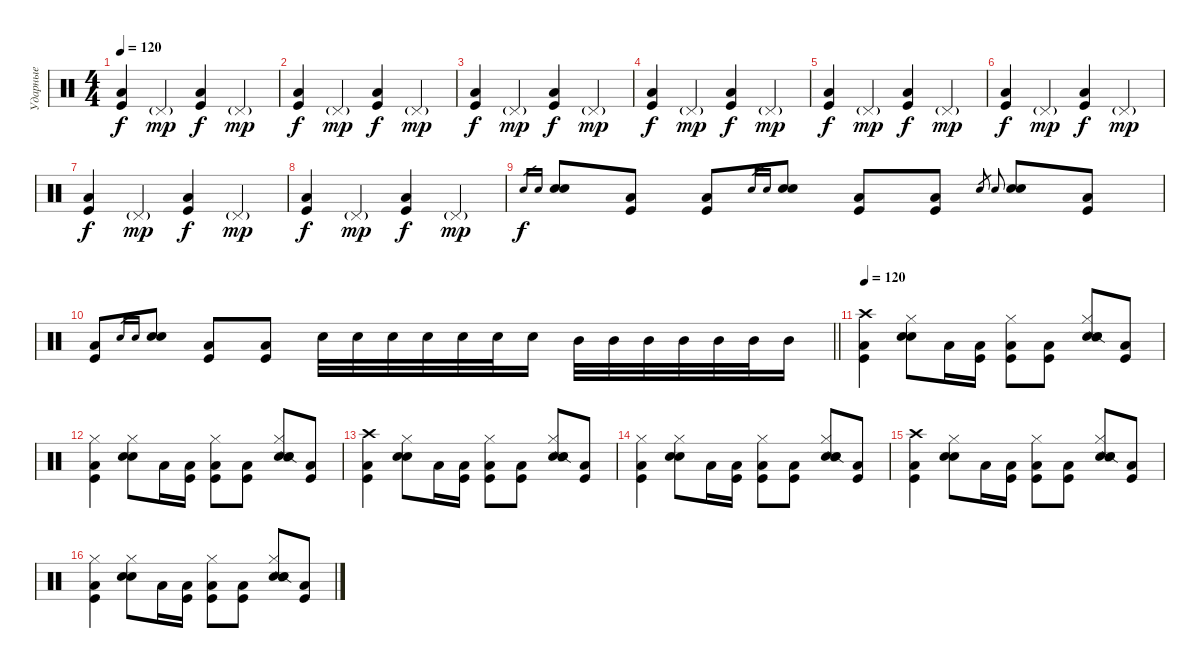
\track ("Ударные" "Ударные") {instrument percussion}
\staff {score}
\articulation defaults
\ts (4 4)
\tempo 120
\clef neutral
\ks c
("Low Tom (hit)" "Kick (hit)").4{dy f} "Pedal Hi-Hat (hit)"{g}.4{dy mp} ("Low Tom (hit)" "Kick (hit)").4{dy f} "Pedal Hi-Hat (hit)"{g}.4{dy mp} |
("Low Tom (hit)" "Kick (hit)").4{dy f} "Pedal Hi-Hat (hit)"{g}.4{dy mp} ("Low Tom (hit)" "Kick (hit)").4{dy f} "Pedal Hi-Hat (hit)"{g}.4{dy mp} |
("Low Tom (hit)" "Kick (hit)").4{dy f} "Pedal Hi-Hat (hit)"{g}.4{dy mp} ("Low Tom (hit)" "Kick (hit)").4{dy f} "Pedal Hi-Hat (hit)"{g}.4{dy mp} |
("Low Tom (hit)" "Kick (hit)").4{dy f} "Pedal Hi-Hat (hit)"{g}.4{dy mp} ("Low Tom (hit)" "Kick (hit)").4{dy f} "Pedal Hi-Hat (hit)"{g}.4{dy mp} |
("Low Tom (hit)" "Kick (hit)").4{dy f} "Pedal Hi-Hat (hit)"{g}.4{dy mp} ("Low Tom (hit)" "Kick (hit)").4{dy f} "Pedal Hi-Hat (hit)"{g}.4{dy mp} |
("Low Tom (hit)" "Kick (hit)").4{dy f} "Pedal Hi-Hat (hit)"{g}.4{dy mp} ("Low Tom (hit)" "Kick (hit)").4{dy f} "Pedal Hi-Hat (hit)"{g}.4{dy mp} |
("Low Tom (hit)" "Kick (hit)").4{dy f} "Pedal Hi-Hat (hit)"{g}.4{dy mp} ("Low Tom (hit)" "Kick (hit)").4{dy f} "Pedal Hi-Hat (hit)"{g}.4{dy mp} |
("Low Tom (hit)" "Kick (hit)").4{dy f} "Pedal Hi-Hat (hit)"{g}.4{dy mp} ("Low Tom (hit)" "Kick (hit)").4{dy f} "Pedal Hi-Hat (hit)"{g}.4{dy mp} |
"Electric Snare (hit)".16{gr dy f} "Snare (hit) 2".16{gr} ("Electric Snare (hit)" "Snare (hit) 2").8 ("Low Tom (hit)" "Kick (hit)").8 ("Low Tom (hit)" "Kick (hit)").8 "Electric Snare (hit)".16{gr} "Snare (hit) 2".16{gr} ("Electric Snare (hit)" "Snare (hit) 2").8 ("Low Tom (hit)" "Kick (hit)").8 ("Low Tom (hit)" "Kick (hit)").8 "Electric Snare (hit)".16{gr} "Snare (hit) 2".16{gr onbeat} ("Electric Snare (hit)" "Snare (hit) 2").8 ("Low Tom (hit)" "Kick (hit)").8 |
\barLineRight lightlight
("Low Tom (hit)" "Kick (hit)").8 "Electric Snare (hit)".16{gr} "Snare (hit) 2".16{gr} ("Electric Snare (hit)" "Snare (hit) 2").8 ("Low Tom (hit)" "Kick (hit)").8 ("Low Tom (hit)" "Kick (hit)").8 "Electric Snare (hit)".32 "Electric Snare (hit)".32 "Electric Snare (hit)".32 "Electric Snare (hit)".32 "Electric Snare (hit)".32 "Electric Snare (hit)".32 "Electric Snare (hit)".16 "Mid Tom (hit)".32 "Mid Tom (hit)".32 "Mid Tom (hit)".32 "Mid Tom (hit)".32 "Mid Tom (hit)".32 "Mid Tom (hit)".32 "Mid Tom (hit)".16 |
\tempo 120
("Crash high (hit)" "Low Tom (hit)" "Kick (hit)").4 ("Hi-Hat (closed)" "Electric Snare (hit)" "Snare (hit) 2").8 "Low Floor Tom (hit)".16 ("Low Tom (hit)" "Kick (hit)").16 ("Hi-Hat (closed)" "Low Tom (hit)" "Kick (hit)").8 ("Low Tom (hit)" "Kick (hit)").8 ("Hi-Hat (closed)" "Electric Snare (hit)" "Snare (hit) 2" "Snare (side stick) 2").8 ("Low Tom (hit)" "Kick (hit)").8 |
("Hi-Hat (closed)" "Low Tom (hit)" "Kick (hit)").4 ("Hi-Hat (closed)" "Electric Snare (hit)" "Snare (hit) 2").8 "Low Floor Tom (hit)".16 ("Low Tom (hit)" "Kick (hit)").16 ("Hi-Hat (closed)" "Low Tom (hit)" "Kick (hit)").8 ("Low Tom (hit)" "Kick (hit)").8 ("Hi-Hat (closed)" "Electric Snare (hit)" "Snare (hit) 2" "Snare (side stick) 2").8 ("Low Tom (hit)" "Kick (hit)").8 |
("Crash high (hit)" "Low Tom (hit)" "Kick (hit)").4 ("Hi-Hat (closed)" "Electric Snare (hit)" "Snare (hit) 2").8 "Low Floor Tom (hit)".16 ("Low Tom (hit)" "Kick (hit)").16 ("Hi-Hat (closed)" "Low Tom (hit)" "Kick (hit)").8 ("Low Tom (hit)" "Kick (hit)").8 ("Hi-Hat (closed)" "Electric Snare (hit)" "Snare (hit) 2" "Snare (side stick) 2").8 ("Low Tom (hit)" "Kick (hit)").8 |
("Hi-Hat (closed)" "Low Tom (hit)" "Kick (hit)").4 ("Hi-Hat (closed)" "Electric Snare (hit)" "Snare (hit) 2").8 "Low Floor Tom (hit)".16 ("Low Tom (hit)" "Kick (hit)").16 ("Hi-Hat (closed)" "Low Tom (hit)" "Kick (hit)").8 ("Low Tom (hit)" "Kick (hit)").8 ("Hi-Hat (closed)" "Electric Snare (hit)" "Snare (hit) 2" "Snare (side stick) 2").8 ("Low Tom (hit)" "Kick (hit)").8 |
("Crash high (hit)" "Low Tom (hit)" "Kick (hit)").4 ("Hi-Hat (closed)" "Electric Snare (hit)" "Snare (hit) 2").8 "Low Floor Tom (hit)".16 ("Low Tom (hit)" "Kick (hit)").16 ("Hi-Hat (closed)" "Low Tom (hit)" "Kick (hit)").8 ("Low Tom (hit)" "Kick (hit)").8 ("Hi-Hat (closed)" "Electric Snare (hit)" "Snare (hit) 2" "Snare (side stick) 2").8 ("Low Tom (hit)" "Kick (hit)").8 |
("Hi-Hat (closed)" "Low Tom (hit)" "Kick (hit)").4 ("Hi-Hat (closed)" "Electric Snare (hit)" "Snare (hit) 2").8 "Low Floor Tom (hit)".16 ("Low Tom (hit)" "Kick (hit)").16 ("Hi-Hat (closed)" "Low Tom (hit)" "Kick (hit)").8 ("Low Tom (hit)" "Kick (hit)").8 ("Hi-Hat (closed)" "Electric Snare (hit)" "Snare (hit) 2" "Snare (side stick) 2").8 ("Low Tom (hit)" "Kick (hit)").8
